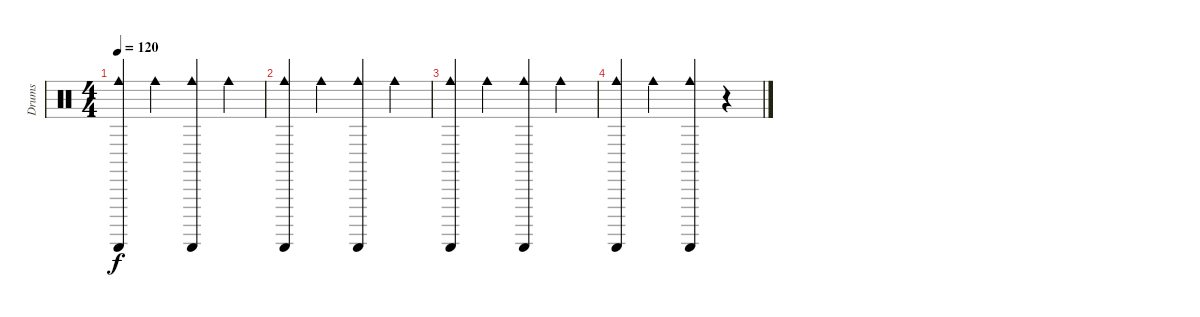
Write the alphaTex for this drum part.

\track ("Drums" "Drums") {instrument percussion}
\staff {score}
\articulation defaults
\ts (4 4)
\tempo 120
\clef neutral
\ks c
("Cowbell medium (hit)" "Guiro (scrap-return)").4{dy f} "Cowbell medium (hit)".4 ("Cowbell medium (hit)" "Guiro (scrap-return)").4 "Cowbell medium (hit)".4 |
("Cowbell medium (hit)" "Guiro (scrap-return)").4 "Cowbell medium (hit)".4 ("Cowbell medium (hit)" "Guiro (scrap-return)").4 "Cowbell medium (hit)".4 |
("Cowbell medium (hit)" "Guiro (scrap-return)").4 "Cowbell medium (hit)".4 ("Cowbell medium (hit)" "Guiro (scrap-return)").4 "Cowbell medium (hit)".4 |
("Cowbell medium (hit)" "Guiro (scrap-return)").4 "Cowbell medium (hit)".4 ("Cowbell medium (hit)" "Guiro (scrap-return)").4 r.4
